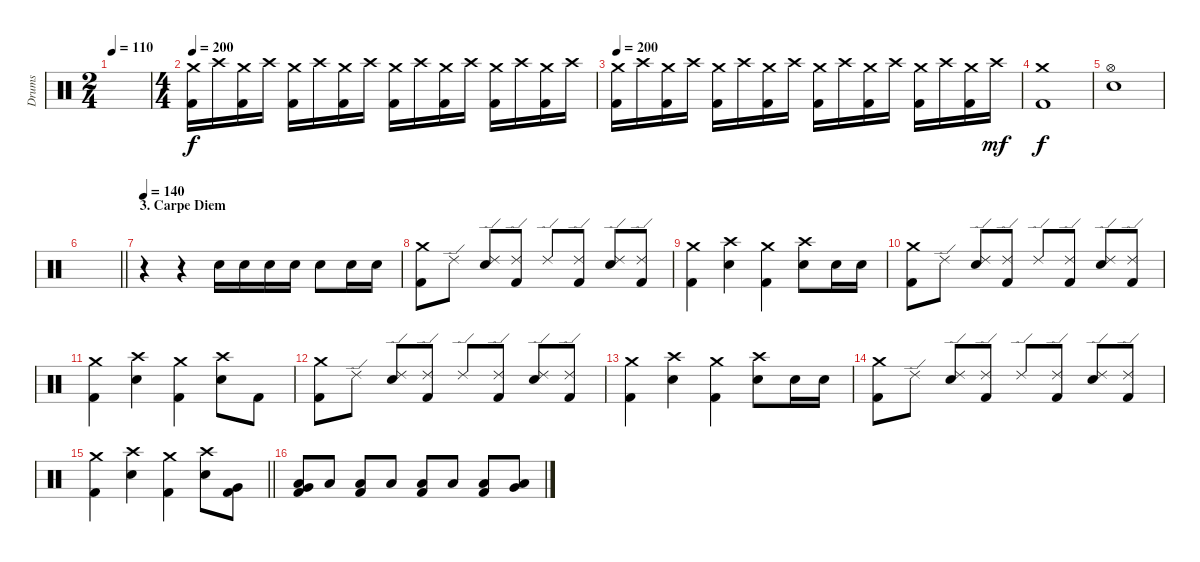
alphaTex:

\track ("Drums" "Drums") {instrument percussion}
\staff {score}
\articulation defaults
\ts (2 4)
\tempo 110
\clef neutral
\ks c
|
\ts (4 4)
\tempo 200
("Crash medium (hit)" "Kick (hit) 2").16 "Crash high (hit)".16 ("Crash medium (hit)" "Kick (hit) 2").16 "Crash high (hit)".16 ("Crash medium (hit)" "Kick (hit) 2").16 "Crash high (hit)".16 ("Crash medium (hit)" "Kick (hit) 2").16 "Crash high (hit)".16 ("Crash medium (hit)" "Kick (hit) 2").16 "Crash high (hit)".16 ("Crash medium (hit)" "Kick (hit) 2").16 "Crash high (hit)".16 ("Crash medium (hit)" "Kick (hit) 2").16 "Crash high (hit)".16 ("Crash medium (hit)" "Kick (hit) 2").16 "Crash high (hit)".16 |
\tempo 200
("Crash medium (hit)" "Kick (hit) 2").16 "Crash high (hit)".16 ("Crash medium (hit)" "Kick (hit) 2").16 "Crash high (hit)".16 ("Crash medium (hit)" "Kick (hit) 2").16 "Crash high (hit)".16 ("Crash medium (hit)" "Kick (hit) 2").16 "Crash high (hit)".16 ("Crash medium (hit)" "Kick (hit) 2").16 "Crash high (hit)".16 ("Crash medium (hit)" "Kick (hit) 2").16 "Crash high (hit)".16 ("Crash medium (hit)" "Kick (hit) 2").16 "Crash high (hit)".16 ("Crash medium (hit)" "Kick (hit) 2").16 "Crash high (hit)".16{dy mf} |
("Crash medium (hit)" "Kick (hit) 2").1{dy f} |
("Hi-Hat (open)" "Electric Snare (hit)").1 |
\barLineRight lightlight
|
\section ("" "3. Carpe Diem")
\tempo 140
r.4 r.4 "Electric Snare (hit)".16 "Electric Snare (hit)".16 "Electric Snare (hit)".16 "Electric Snare (hit)".16 "Electric Snare (hit)".8 "Electric Snare (hit)".16 "Electric Snare (hit)".16 |
("Crash medium (hit)" "Kick (hit) 2").8 "Ride (edge) 2".8 ("Ride (edge) 2" "Electric Snare (hit)").8 ("Ride (edge) 2" "Kick (hit) 2").8 "Ride (edge) 2".8 ("Ride (edge) 2" "Kick (hit) 2").8 ("Ride (edge) 2" "Electric Snare (hit)").8 ("Ride (edge) 2" "Kick (hit) 2").8 |
("Crash medium (hit)" "Kick (hit) 2").4 ("Crash high (hit)" "Electric Snare (hit)").4 ("Crash medium (hit)" "Kick (hit) 2").4 ("Crash high (hit)" "Electric Snare (hit)").8 "Electric Snare (hit)".16 "Electric Snare (hit)".16 |
("Crash medium (hit)" "Kick (hit) 2").8 "Ride (edge) 2".8 ("Ride (edge) 2" "Electric Snare (hit)").8 ("Ride (edge) 2" "Kick (hit) 2").8 "Ride (edge) 2".8 ("Ride (edge) 2" "Kick (hit) 2").8 ("Ride (edge) 2" "Electric Snare (hit)").8 ("Ride (edge) 2" "Kick (hit) 2").8 |
("Crash medium (hit)" "Kick (hit) 2").4 ("Crash high (hit)" "Electric Snare (hit)").4 ("Crash medium (hit)" "Kick (hit) 2").4 ("Crash high (hit)" "Electric Snare (hit)").8 "Kick (hit) 2".8 |
("Crash medium (hit)" "Kick (hit) 2").8 "Ride (edge) 2".8 ("Ride (edge) 2" "Electric Snare (hit)").8 ("Ride (edge) 2" "Kick (hit) 2").8 "Ride (edge) 2".8 ("Ride (edge) 2" "Kick (hit) 2").8 ("Ride (edge) 2" "Electric Snare (hit)").8 ("Ride (edge) 2" "Kick (hit) 2").8 |
("Crash medium (hit)" "Kick (hit) 2").4 ("Crash high (hit)" "Electric Snare (hit)").4 ("Crash medium (hit)" "Kick (hit) 2").4 ("Crash high (hit)" "Electric Snare (hit)").8 "Electric Snare (hit)".16 "Electric Snare (hit)".16 |
("Crash medium (hit)" "Kick (hit) 2").8 "Ride (edge) 2".8 ("Ride (edge) 2" "Electric Snare (hit)").8 ("Ride (edge) 2" "Kick (hit) 2").8 "Ride (edge) 2".8 ("Ride (edge) 2" "Kick (hit) 2").8 ("Ride (edge) 2" "Electric Snare (hit)").8 ("Ride (edge) 2" "Kick (hit) 2").8 |
\barLineRight lightlight
("Crash medium (hit)" "Kick (hit) 2").4 ("Crash high (hit)" "Electric Snare (hit)").4 ("Crash medium (hit)" "Kick (hit) 2").4 ("Crash high (hit)" "Electric Snare (hit)").8 ("Very Low Tom (hit)" "Kick (hit) 2").8 |
("Very Low Tom (hit)" "Low Floor Tom (hit)" "Kick (hit) 2").8 "Low Floor Tom (hit)".8 ("Low Floor Tom (hit)" "Kick (hit) 2").8 "Low Floor Tom (hit)".8 ("Low Floor Tom (hit)" "Kick (hit) 2").8 "Low Floor Tom (hit)".8 ("Low Floor Tom (hit)" "Kick (hit) 2").8 ("Very Low Tom (hit)" "Low Floor Tom (hit)").8
